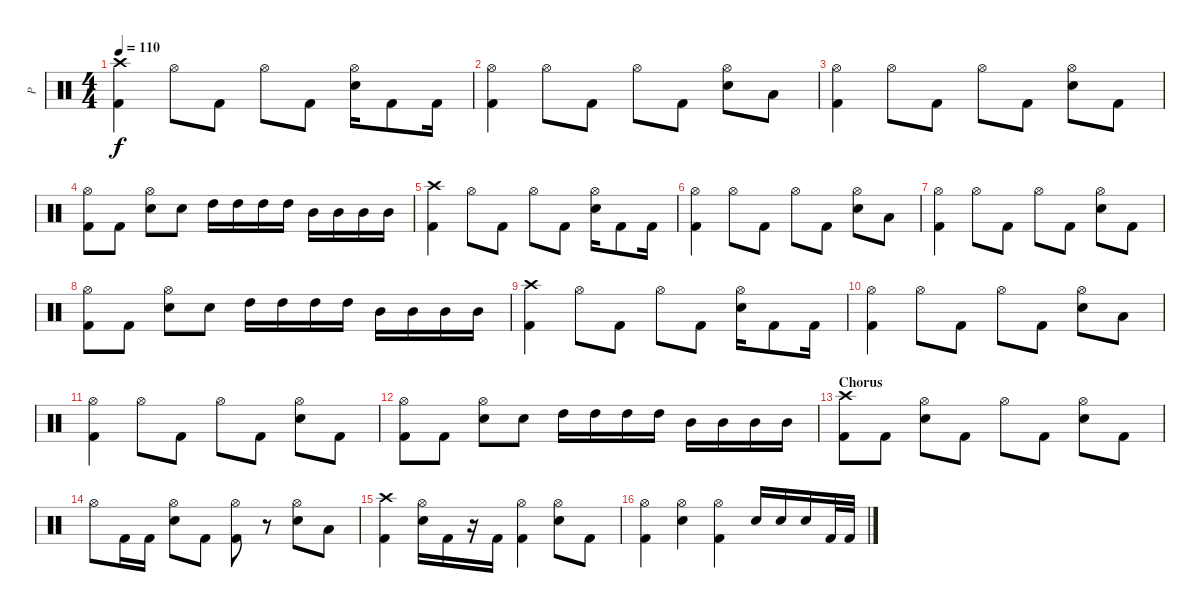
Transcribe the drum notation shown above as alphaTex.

\track ("P" "P") {instrument percussion}
\staff {score}
\articulation defaults
\ts (4 4)
\tempo 110
\clef neutral
\ks c
("Crash high (hit)" "Kick (hit) 2").4{dy f} "Hi-Hat (open)".8 "Kick (hit) 2".8 "Hi-Hat (open)".8 "Kick (hit) 2".8 ("Hi-Hat (open)" "Electric Snare (hit)").16 "Kick (hit) 2".8 "Kick (hit) 2".16 |
("Hi-Hat (open)" "Kick (hit) 2").4 "Hi-Hat (open)".8 "Kick (hit) 2".8 "Hi-Hat (open)".8 "Kick (hit) 2".8 ("Hi-Hat (open)" "Electric Snare (hit)").8 "Low Tom (hit)".8 |
("Hi-Hat (open)" "Kick (hit) 2").4 "Hi-Hat (open)".8 "Kick (hit) 2".8 "Hi-Hat (open)".8 "Kick (hit) 2".8 ("Hi-Hat (open)" "Electric Snare (hit)").8 "Kick (hit) 2".8 |
("Hi-Hat (open)" "Kick (hit) 2").8 "Kick (hit) 2".8 ("Hi-Hat (open)" "Electric Snare (hit)").8 "Electric Snare (hit)".8 "High Tom (hit)".16 "High Tom (hit)".16 "High Tom (hit)".16 "High Tom (hit)".16 "Mid Tom (hit)".16 "Mid Tom (hit)".16 "Mid Tom (hit)".16 "Mid Tom (hit)".16 |
("Crash high (hit)" "Kick (hit) 2").4 "Hi-Hat (open)".8 "Kick (hit) 2".8 "Hi-Hat (open)".8 "Kick (hit) 2".8 ("Hi-Hat (open)" "Electric Snare (hit)").16 "Kick (hit) 2".8 "Kick (hit) 2".16 |
("Hi-Hat (open)" "Kick (hit) 2").4 "Hi-Hat (open)".8 "Kick (hit) 2".8 "Hi-Hat (open)".8 "Kick (hit) 2".8 ("Hi-Hat (open)" "Electric Snare (hit)").8 "Low Tom (hit)".8 |
("Hi-Hat (open)" "Kick (hit) 2").4 "Hi-Hat (open)".8 "Kick (hit) 2".8 "Hi-Hat (open)".8 "Kick (hit) 2".8 ("Hi-Hat (open)" "Electric Snare (hit)").8 "Kick (hit) 2".8 |
("Hi-Hat (open)" "Kick (hit) 2").8 "Kick (hit) 2".8 ("Hi-Hat (open)" "Electric Snare (hit)").8 "Electric Snare (hit)".8 "High Tom (hit)".16 "High Tom (hit)".16 "High Tom (hit)".16 "High Tom (hit)".16 "Mid Tom (hit)".16 "Mid Tom (hit)".16 "Mid Tom (hit)".16 "Mid Tom (hit)".16 |
("Crash high (hit)" "Kick (hit) 2").4 "Hi-Hat (open)".8 "Kick (hit) 2".8 "Hi-Hat (open)".8 "Kick (hit) 2".8 ("Hi-Hat (open)" "Electric Snare (hit)").16 "Kick (hit) 2".8 "Kick (hit) 2".16 |
("Hi-Hat (open)" "Kick (hit) 2").4 "Hi-Hat (open)".8 "Kick (hit) 2".8 "Hi-Hat (open)".8 "Kick (hit) 2".8 ("Hi-Hat (open)" "Electric Snare (hit)").8 "Low Tom (hit)".8 |
("Hi-Hat (open)" "Kick (hit) 2").4 "Hi-Hat (open)".8 "Kick (hit) 2".8 "Hi-Hat (open)".8 "Kick (hit) 2".8 ("Hi-Hat (open)" "Electric Snare (hit)").8 "Kick (hit) 2".8 |
("Hi-Hat (open)" "Kick (hit) 2").8 "Kick (hit) 2".8 ("Hi-Hat (open)" "Electric Snare (hit)").8 "Electric Snare (hit)".8 "High Tom (hit)".16 "High Tom (hit)".16 "High Tom (hit)".16 "High Tom (hit)".16 "Mid Tom (hit)".16 "Mid Tom (hit)".16 "Mid Tom (hit)".16 "Mid Tom (hit)".16 |
\section ("" "Chorus")
("Crash high (hit)" "Kick (hit) 2").8 "Kick (hit) 2".8 ("Hi-Hat (open)" "Electric Snare (hit)").8 "Kick (hit) 2".8 "Hi-Hat (open)".8 "Kick (hit) 2".8 ("Hi-Hat (open)" "Electric Snare (hit)").8 "Kick (hit) 2".8 |
"Hi-Hat (open)".8 "Kick (hit) 2".16 "Kick (hit) 2".16 ("Hi-Hat (open)" "Electric Snare (hit)").8 "Kick (hit) 2".8 ("Hi-Hat (open)" "Kick (hit) 2").8 r.8 ("Hi-Hat (open)" "Electric Snare (hit)").8 "Low Tom (hit)".8 |
("Crash high (hit)" "Kick (hit) 2").4 ("Hi-Hat (open)" "Electric Snare (hit)").16 "Kick (hit) 2".16 r.16 "Kick (hit) 2".16 ("Hi-Hat (open)" "Kick (hit) 2").4 ("Hi-Hat (open)" "Electric Snare (hit)").8 "Kick (hit) 2".8 |
("Hi-Hat (open)" "Kick (hit) 2").4 ("Hi-Hat (open)" "Electric Snare (hit)").4 ("Hi-Hat (open)" "Kick (hit) 2").4 "Electric Snare (hit)".16 "Electric Snare (hit)".16 "Electric Snare (hit)".16 "Kick (hit) 2".32 "Kick (hit) 2".32
